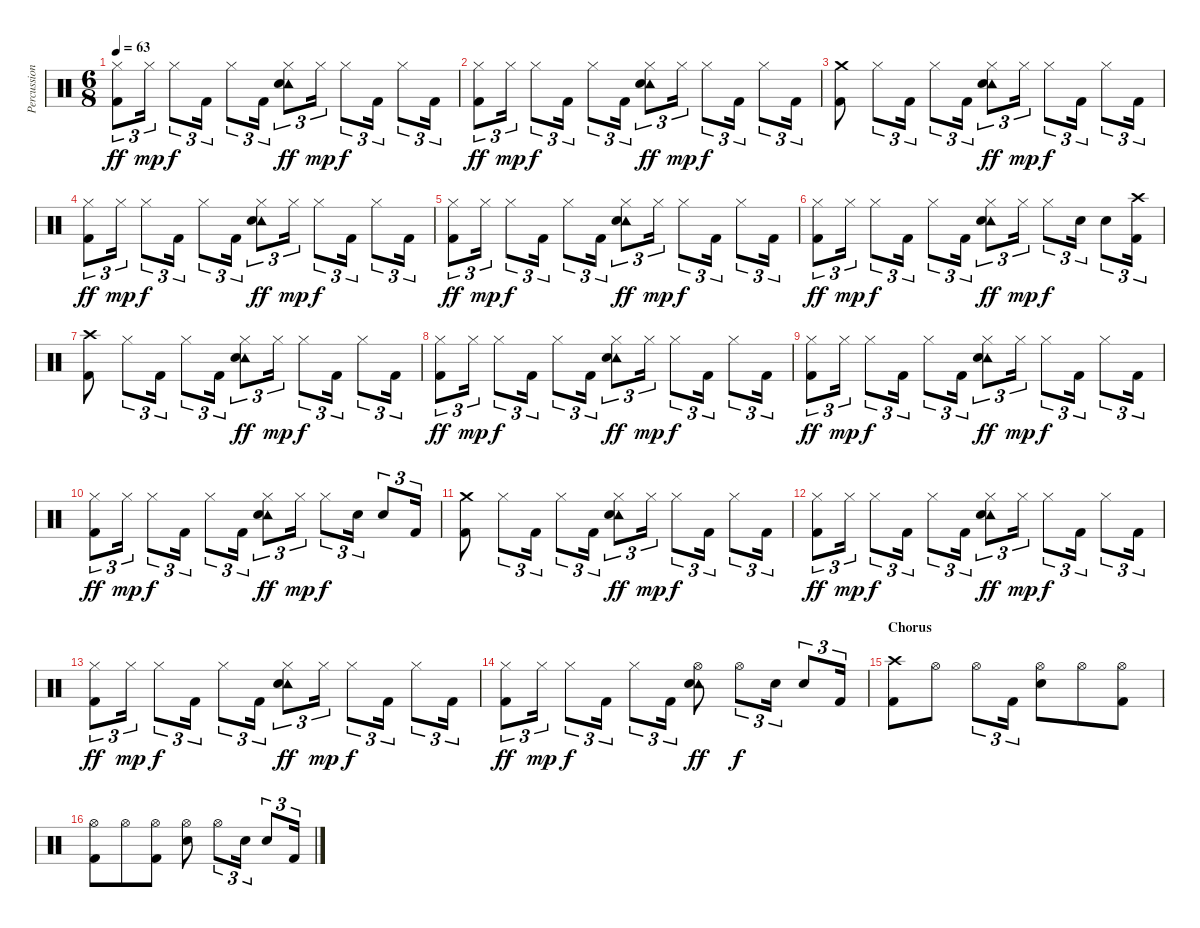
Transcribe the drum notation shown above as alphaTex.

\track ("Percussion" "Percussion") {instrument percussion}
\staff {score}
\articulation defaults
\ts (6 8)
\tempo 63
\clef neutral
\ks c
("Hi-Hat (closed)" "Kick (hit) 2").8{tu (3 2) dy ff} "Hi-Hat (closed)".16{tu (3 2) dy mp} "Hi-Hat (closed)".8{tu (3 2) dy f} "Kick (hit) 2".16{tu (3 2)} "Hi-Hat (closed)".8{tu (3 2)} "Kick (hit) 2".16{tu (3 2)} ("Hi-Hat (closed)" "Tambourine (hit)" "Electric Snare (hit)").8{tu (3 2) dy ff} "Hi-Hat (closed)".16{tu (3 2) dy mp} "Hi-Hat (closed)".8{tu (3 2) dy f} "Kick (hit) 2".16{tu (3 2)} "Hi-Hat (closed)".8{tu (3 2)} "Kick (hit) 2".16{tu (3 2)} |
("Hi-Hat (closed)" "Kick (hit) 2").8{tu (3 2) dy ff} "Hi-Hat (closed)".16{tu (3 2) dy mp} "Hi-Hat (closed)".8{tu (3 2) dy f} "Kick (hit) 2".16{tu (3 2)} "Hi-Hat (closed)".8{tu (3 2)} "Kick (hit) 2".16{tu (3 2)} ("Hi-Hat (closed)" "Tambourine (hit)" "Electric Snare (hit)").8{tu (3 2) dy ff} "Hi-Hat (closed)".16{tu (3 2) dy mp} "Hi-Hat (closed)".8{tu (3 2) dy f} "Kick (hit) 2".16{tu (3 2)} "Hi-Hat (closed)".8{tu (3 2)} "Kick (hit) 2".16{tu (3 2)} |
("Crash medium (hit)" "Kick (hit) 2").8 "Hi-Hat (closed)".8{tu (3 2)} "Kick (hit) 2".16{tu (3 2)} "Hi-Hat (closed)".8{tu (3 2)} "Kick (hit) 2".16{tu (3 2)} ("Hi-Hat (closed)" "Tambourine (hit)" "Electric Snare (hit)").8{tu (3 2) dy ff} "Hi-Hat (closed)".16{tu (3 2) dy mp} "Hi-Hat (closed)".8{tu (3 2) dy f} "Kick (hit) 2".16{tu (3 2)} "Hi-Hat (closed)".8{tu (3 2)} "Kick (hit) 2".16{tu (3 2)} |
("Hi-Hat (closed)" "Kick (hit) 2").8{tu (3 2) dy ff} "Hi-Hat (closed)".16{tu (3 2) dy mp} "Hi-Hat (closed)".8{tu (3 2) dy f} "Kick (hit) 2".16{tu (3 2)} "Hi-Hat (closed)".8{tu (3 2)} "Kick (hit) 2".16{tu (3 2)} ("Hi-Hat (closed)" "Tambourine (hit)" "Electric Snare (hit)").8{tu (3 2) dy ff} "Hi-Hat (closed)".16{tu (3 2) dy mp} "Hi-Hat (closed)".8{tu (3 2) dy f} "Kick (hit) 2".16{tu (3 2)} "Hi-Hat (closed)".8{tu (3 2)} "Kick (hit) 2".16{tu (3 2)} |
("Hi-Hat (closed)" "Kick (hit) 2").8{tu (3 2) dy ff} "Hi-Hat (closed)".16{tu (3 2) dy mp} "Hi-Hat (closed)".8{tu (3 2) dy f} "Kick (hit) 2".16{tu (3 2)} "Hi-Hat (closed)".8{tu (3 2)} "Kick (hit) 2".16{tu (3 2)} ("Hi-Hat (closed)" "Tambourine (hit)" "Electric Snare (hit)").8{tu (3 2) dy ff} "Hi-Hat (closed)".16{tu (3 2) dy mp} "Hi-Hat (closed)".8{tu (3 2) dy f} "Kick (hit) 2".16{tu (3 2)} "Hi-Hat (closed)".8{tu (3 2)} "Kick (hit) 2".16{tu (3 2)} |
("Hi-Hat (closed)" "Kick (hit) 2").8{tu (3 2) dy ff} "Hi-Hat (closed)".16{tu (3 2) dy mp} "Hi-Hat (closed)".8{tu (3 2) dy f} "Kick (hit) 2".16{tu (3 2)} "Hi-Hat (closed)".8{tu (3 2)} "Kick (hit) 2".16{tu (3 2)} ("Hi-Hat (closed)" "Tambourine (hit)" "Electric Snare (hit)").8{tu (3 2) dy ff} "Hi-Hat (closed)".16{tu (3 2) dy mp} "Hi-Hat (closed)".8{tu (3 2) dy f} "Electric Snare (hit)".16{tu (3 2)} "Electric Snare (hit)".8{tu (3 2)} ("Crash high (hit)" "Kick (hit) 2").16{tu (3 2)} |
("Crash high (hit)" "Kick (hit) 2").8 "Hi-Hat (closed)".8{tu (3 2)} "Kick (hit) 2".16{tu (3 2)} "Hi-Hat (closed)".8{tu (3 2)} "Kick (hit) 2".16{tu (3 2)} ("Hi-Hat (closed)" "Tambourine (hit)" "Electric Snare (hit)").8{tu (3 2) dy ff} "Hi-Hat (closed)".16{tu (3 2) dy mp} "Hi-Hat (closed)".8{tu (3 2) dy f} "Kick (hit) 2".16{tu (3 2)} "Hi-Hat (closed)".8{tu (3 2)} "Kick (hit) 2".16{tu (3 2)} |
("Hi-Hat (closed)" "Kick (hit) 2").8{tu (3 2) dy ff} "Hi-Hat (closed)".16{tu (3 2) dy mp} "Hi-Hat (closed)".8{tu (3 2) dy f} "Kick (hit) 2".16{tu (3 2)} "Hi-Hat (closed)".8{tu (3 2)} "Kick (hit) 2".16{tu (3 2)} ("Hi-Hat (closed)" "Tambourine (hit)" "Electric Snare (hit)").8{tu (3 2) dy ff} "Hi-Hat (closed)".16{tu (3 2) dy mp} "Hi-Hat (closed)".8{tu (3 2) dy f} "Kick (hit) 2".16{tu (3 2)} "Hi-Hat (closed)".8{tu (3 2)} "Kick (hit) 2".16{tu (3 2)} |
("Hi-Hat (closed)" "Kick (hit) 2").8{tu (3 2) dy ff} "Hi-Hat (closed)".16{tu (3 2) dy mp} "Hi-Hat (closed)".8{tu (3 2) dy f} "Kick (hit) 2".16{tu (3 2)} "Hi-Hat (closed)".8{tu (3 2)} "Kick (hit) 2".16{tu (3 2)} ("Hi-Hat (closed)" "Tambourine (hit)" "Electric Snare (hit)").8{tu (3 2) dy ff} "Hi-Hat (closed)".16{tu (3 2) dy mp} "Hi-Hat (closed)".8{tu (3 2) dy f} "Kick (hit) 2".16{tu (3 2)} "Hi-Hat (closed)".8{tu (3 2)} "Kick (hit) 2".16{tu (3 2)} |
("Hi-Hat (closed)" "Kick (hit) 2").8{tu (3 2) dy ff} "Hi-Hat (closed)".16{tu (3 2) dy mp} "Hi-Hat (closed)".8{tu (3 2) dy f} "Kick (hit) 2".16{tu (3 2)} "Hi-Hat (closed)".8{tu (3 2)} "Kick (hit) 2".16{tu (3 2)} ("Hi-Hat (closed)" "Tambourine (hit)" "Electric Snare (hit)").8{tu (3 2) dy ff} "Hi-Hat (closed)".16{tu (3 2) dy mp} "Hi-Hat (closed)".8{tu (3 2) dy f} "Electric Snare (hit)".16{tu (3 2)} "Electric Snare (hit)".8{tu (3 2)} "Kick (hit) 2".16{tu (3 2)} |
("Crash medium (hit)" "Kick (hit) 2").8 "Hi-Hat (closed)".8{tu (3 2)} "Kick (hit) 2".16{tu (3 2)} "Hi-Hat (closed)".8{tu (3 2)} "Kick (hit) 2".16{tu (3 2)} ("Hi-Hat (closed)" "Tambourine (hit)" "Electric Snare (hit)").8{tu (3 2) dy ff} "Hi-Hat (closed)".16{tu (3 2) dy mp} "Hi-Hat (closed)".8{tu (3 2) dy f} "Kick (hit) 2".16{tu (3 2)} "Hi-Hat (closed)".8{tu (3 2)} "Kick (hit) 2".16{tu (3 2)} |
("Hi-Hat (closed)" "Kick (hit) 2").8{tu (3 2) dy ff} "Hi-Hat (closed)".16{tu (3 2) dy mp} "Hi-Hat (closed)".8{tu (3 2) dy f} "Kick (hit) 2".16{tu (3 2)} "Hi-Hat (closed)".8{tu (3 2)} "Kick (hit) 2".16{tu (3 2)} ("Hi-Hat (closed)" "Tambourine (hit)" "Electric Snare (hit)").8{tu (3 2) dy ff} "Hi-Hat (closed)".16{tu (3 2) dy mp} "Hi-Hat (closed)".8{tu (3 2) dy f} "Kick (hit) 2".16{tu (3 2)} "Hi-Hat (closed)".8{tu (3 2)} "Kick (hit) 2".16{tu (3 2)} |
("Hi-Hat (closed)" "Kick (hit) 2").8{tu (3 2) dy ff} "Hi-Hat (closed)".16{tu (3 2) dy mp} "Hi-Hat (closed)".8{tu (3 2) dy f} "Kick (hit) 2".16{tu (3 2)} "Hi-Hat (closed)".8{tu (3 2)} "Kick (hit) 2".16{tu (3 2)} ("Hi-Hat (closed)" "Tambourine (hit)" "Electric Snare (hit)").8{tu (3 2) dy ff} "Hi-Hat (closed)".16{tu (3 2) dy mp} "Hi-Hat (closed)".8{tu (3 2) dy f} "Kick (hit) 2".16{tu (3 2)} "Hi-Hat (closed)".8{tu (3 2)} "Kick (hit) 2".16{tu (3 2)} |
("Hi-Hat (closed)" "Kick (hit) 2").8{tu (3 2) dy ff} "Hi-Hat (closed)".16{tu (3 2) dy mp} "Hi-Hat (closed)".8{tu (3 2) dy f} "Kick (hit) 2".16{tu (3 2)} "Hi-Hat (closed)".8{tu (3 2)} "Kick (hit) 2".16{tu (3 2)} ("Hi-Hat (open)" "Tambourine (hit)" "Electric Snare (hit)").8{dy ff} "Hi-Hat (open)".8{tu (3 2) dy f} "Electric Snare (hit)".16{tu (3 2)} "Electric Snare (hit)".8{tu (3 2)} "Kick (hit) 2".16{tu (3 2)} |
\section ("" "Chorus")
("Crash high (hit)" "Kick (hit) 2").8 "Hi-Hat (open)".8 "Hi-Hat (open)".8{tu (3 2)} "Kick (hit) 2".16{tu (3 2)} ("Hi-Hat (open)" "Electric Snare (hit)").8 "Hi-Hat (open)".8 ("Hi-Hat (open)" "Kick (hit) 2").8 |
("Hi-Hat (open)" "Kick (hit) 2").8 "Hi-Hat (open)".8 ("Hi-Hat (open)" "Kick (hit) 2").8 ("Hi-Hat (open)" "Electric Snare (hit)").8 "Hi-Hat (open)".8{tu (3 2)} "Electric Snare (hit)".16{tu (3 2)} "Electric Snare (hit)".8{tu (3 2)} "Kick (hit) 2".16{tu (3 2)}
